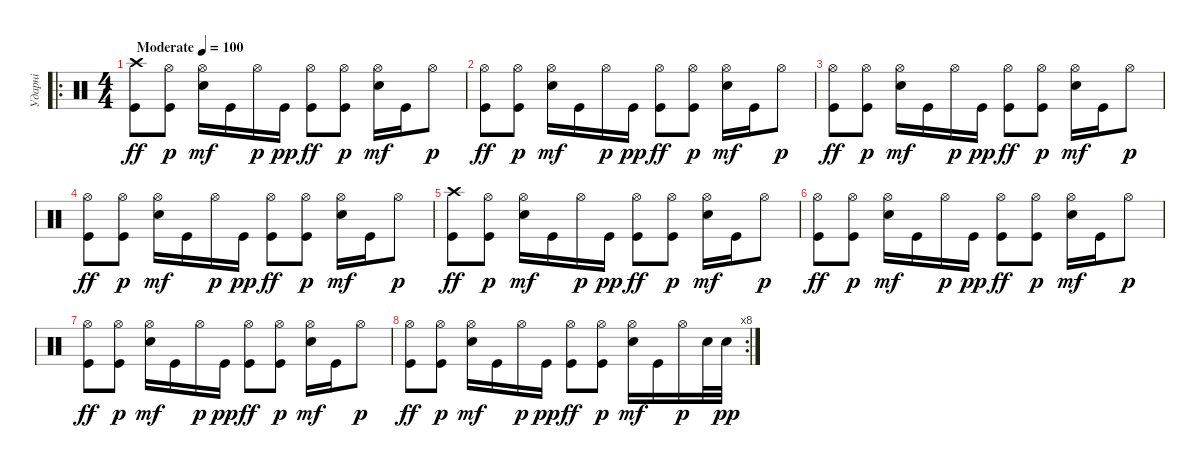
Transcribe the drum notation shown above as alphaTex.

\track ("Ударні" "Ударні") {instrument percussion}
\staff {score}
\articulation defaults
\ro
\ts (4 4)
\tempo (100 "Moderate")
\clef neutral
\ks c
("Crash high (hit)" "Kick (hit)").8{dy ff} ("Hi-Hat (open)" "Kick (hit)").8{dy p} ("Hi-Hat (open)" "Snare (hit) 2").16{dy mf} "Kick (hit)".16 "Hi-Hat (open)".16{dy p} "Kick (hit)".16{dy pp} ("Hi-Hat (open)" "Kick (hit)").8{dy ff} ("Hi-Hat (open)" "Kick (hit)").8{dy p} ("Hi-Hat (open)" "Snare (hit) 2").16{dy mf} "Kick (hit)".16 "Hi-Hat (open)".8{dy p} |
("Hi-Hat (open)" "Kick (hit)").8{dy ff} ("Hi-Hat (open)" "Kick (hit)").8{dy p} ("Hi-Hat (open)" "Snare (hit) 2").16{dy mf} "Kick (hit)".16 "Hi-Hat (open)".16{dy p} "Kick (hit)".16{dy pp} ("Hi-Hat (open)" "Kick (hit)").8{dy ff} ("Hi-Hat (open)" "Kick (hit)").8{dy p} ("Hi-Hat (open)" "Snare (hit) 2").16{dy mf} "Kick (hit)".16 "Hi-Hat (open)".8{dy p} |
("Hi-Hat (open)" "Kick (hit)").8{dy ff} ("Hi-Hat (open)" "Kick (hit)").8{dy p} ("Hi-Hat (open)" "Snare (hit) 2").16{dy mf} "Kick (hit)".16 "Hi-Hat (open)".16{dy p} "Kick (hit)".16{dy pp} ("Hi-Hat (open)" "Kick (hit)").8{dy ff} ("Hi-Hat (open)" "Kick (hit)").8{dy p} ("Hi-Hat (open)" "Snare (hit) 2").16{dy mf} "Kick (hit)".16 "Hi-Hat (open)".8{dy p} |
("Hi-Hat (open)" "Kick (hit)").8{dy ff} ("Hi-Hat (open)" "Kick (hit)").8{dy p} ("Hi-Hat (open)" "Snare (hit) 2").16{dy mf} "Kick (hit)".16 "Hi-Hat (open)".16{dy p} "Kick (hit)".16{dy pp} ("Hi-Hat (open)" "Kick (hit)").8{dy ff} ("Hi-Hat (open)" "Kick (hit)").8{dy p} ("Hi-Hat (open)" "Snare (hit) 2").16{dy mf} "Kick (hit)".16 "Hi-Hat (open)".8{dy p} |
("Crash high (hit)" "Kick (hit)").8{dy ff} ("Hi-Hat (open)" "Kick (hit)").8{dy p} ("Hi-Hat (open)" "Snare (hit) 2").16{dy mf} "Kick (hit)".16 "Hi-Hat (open)".16{dy p} "Kick (hit)".16{dy pp} ("Hi-Hat (open)" "Kick (hit)").8{dy ff} ("Hi-Hat (open)" "Kick (hit)").8{dy p} ("Hi-Hat (open)" "Snare (hit) 2").16{dy mf} "Kick (hit)".16 "Hi-Hat (open)".8{dy p} |
("Hi-Hat (open)" "Kick (hit)").8{dy ff} ("Hi-Hat (open)" "Kick (hit)").8{dy p} ("Hi-Hat (open)" "Snare (hit) 2").16{dy mf} "Kick (hit)".16 "Hi-Hat (open)".16{dy p} "Kick (hit)".16{dy pp} ("Hi-Hat (open)" "Kick (hit)").8{dy ff} ("Hi-Hat (open)" "Kick (hit)").8{dy p} ("Hi-Hat (open)" "Snare (hit) 2").16{dy mf} "Kick (hit)".16 "Hi-Hat (open)".8{dy p} |
("Hi-Hat (open)" "Kick (hit)").8{dy ff} ("Hi-Hat (open)" "Kick (hit)").8{dy p} ("Hi-Hat (open)" "Snare (hit) 2").16{dy mf} "Kick (hit)".16 "Hi-Hat (open)".16{dy p} "Kick (hit)".16{dy pp} ("Hi-Hat (open)" "Kick (hit)").8{dy ff} ("Hi-Hat (open)" "Kick (hit)").8{dy p} ("Hi-Hat (open)" "Snare (hit) 2").16{dy mf} "Kick (hit)".16 "Hi-Hat (open)".8{dy p} |
\rc 8
("Hi-Hat (open)" "Kick (hit)").8{dy ff} ("Hi-Hat (open)" "Kick (hit)").8{dy p} ("Hi-Hat (open)" "Snare (hit) 2").16{dy mf} "Kick (hit)".16 "Hi-Hat (open)".16{dy p} "Kick (hit)".16{dy pp} ("Hi-Hat (open)" "Kick (hit)").8{dy ff} ("Hi-Hat (open)" "Kick (hit)").8{dy p} ("Hi-Hat (open)" "Snare (hit) 2").16{dy mf} "Kick (hit)".16 "Hi-Hat (open)".16{dy p} "Snare (hit) 2".32 "Snare (hit) 2".32{dy pp}
